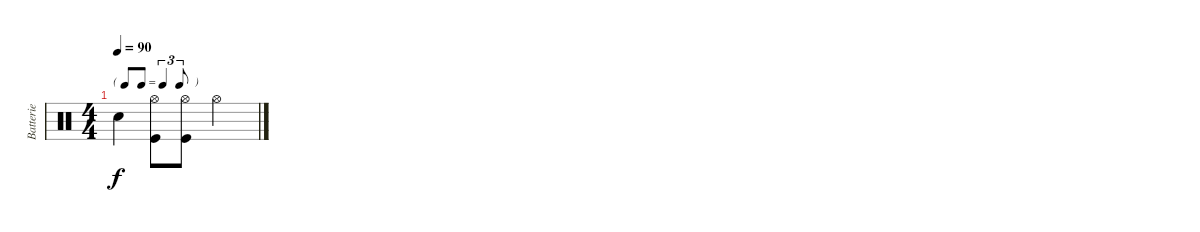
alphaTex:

\track ("Batterie" "Batterie") {instrument percussion}
\staff {score}
\articulation defaults
\ts (4 4)
\tf triplet8th
\tempo 90
\clef neutral
\ks c "Snare (hit) 2".4{dy f}
("Hi-Hat (open)" "Kick (hit)").8 ("Hi-Hat (open)" "Kick (hit)").8 "Hi-Hat (open)".2
